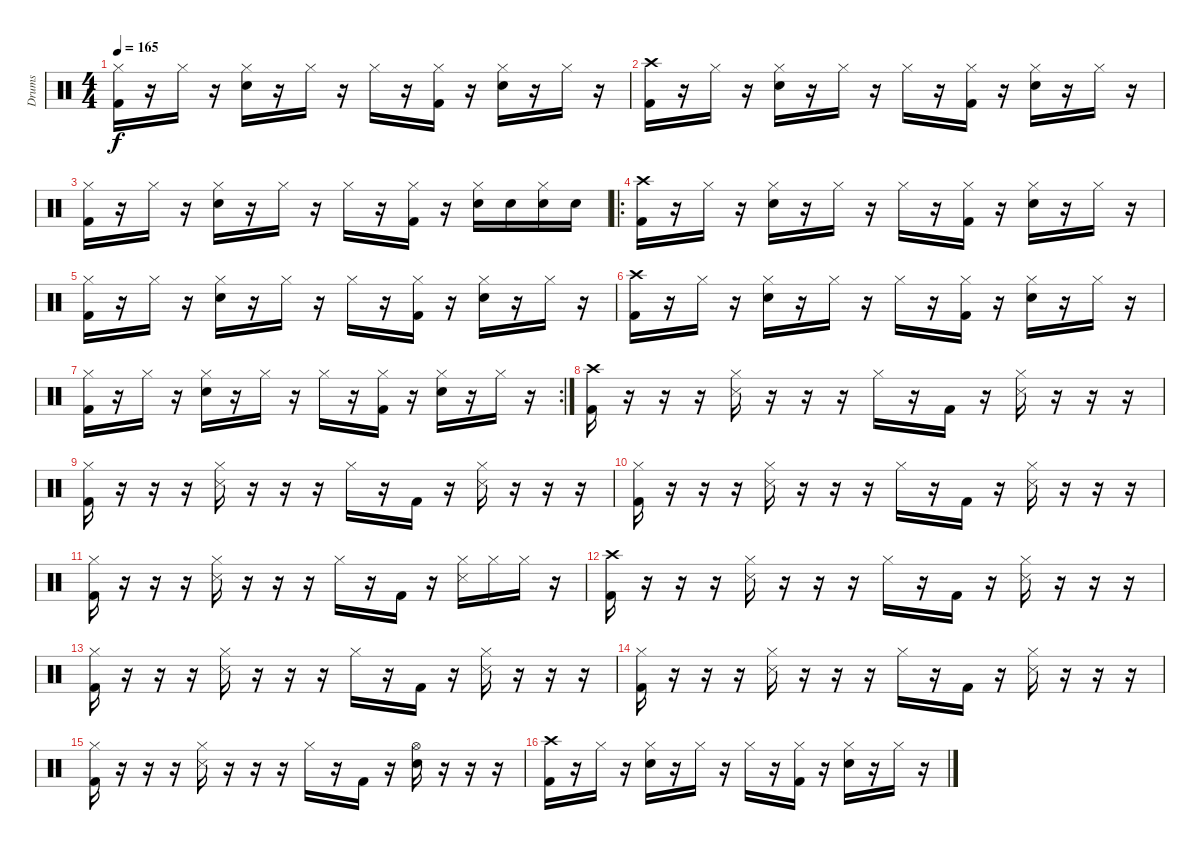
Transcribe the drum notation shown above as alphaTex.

\track ("Drums" "Drums") {instrument percussion}
\staff {score}
\articulation defaults
\ts (4 4)
\tempo 165
\clef neutral
\ks c
("Kick (hit) 2" "Hi-Hat (closed)").16{dy f} r.16 "Hi-Hat (closed)".16 r.16 ("Hi-Hat (closed)" "Snare (hit) 2").16 r.16 "Hi-Hat (closed)".16 r.16 "Hi-Hat (closed)".16 r.16 ("Hi-Hat (closed)" "Kick (hit) 2").16 r.16 ("Hi-Hat (closed)" "Snare (hit) 2").16 r.16 "Hi-Hat (closed)".16 r.16 |
("Kick (hit) 2" "Crash high (hit)").16 r.16 "Hi-Hat (closed)".16 r.16 ("Hi-Hat (closed)" "Snare (hit) 2").16 r.16 "Hi-Hat (closed)".16 r.16 "Hi-Hat (closed)".16 r.16 ("Hi-Hat (closed)" "Kick (hit) 2").16 r.16 ("Hi-Hat (closed)" "Snare (hit) 2").16 r.16 "Hi-Hat (closed)".16 r.16 |
("Kick (hit) 2" "Hi-Hat (closed)").16 r.16 "Hi-Hat (closed)".16 r.16 ("Hi-Hat (closed)" "Snare (hit) 2").16 r.16 "Hi-Hat (closed)".16 r.16 "Hi-Hat (closed)".16 r.16 ("Hi-Hat (closed)" "Kick (hit) 2").16 r.16 ("Hi-Hat (closed)" "Snare (hit) 2").16 "Snare (hit) 2".16 ("Hi-Hat (closed)" "Snare (hit) 2").16 "Snare (hit) 2".16 |
\ro
("Kick (hit) 2" "Crash high (hit)").16 r.16 "Hi-Hat (closed)".16 r.16 ("Hi-Hat (closed)" "Snare (hit) 2").16 r.16 "Hi-Hat (closed)".16 r.16 "Hi-Hat (closed)".16 r.16 ("Hi-Hat (closed)" "Kick (hit) 2").16 r.16 ("Hi-Hat (closed)" "Snare (hit) 2").16 r.16 "Hi-Hat (closed)".16 r.16 |
("Kick (hit) 2" "Hi-Hat (closed)").16 r.16 "Hi-Hat (closed)".16 r.16 ("Hi-Hat (closed)" "Snare (hit) 2").16 r.16 "Hi-Hat (closed)".16 r.16 "Hi-Hat (closed)".16 r.16 ("Hi-Hat (closed)" "Kick (hit) 2").16 r.16 ("Hi-Hat (closed)" "Snare (hit) 2").16 r.16 "Hi-Hat (closed)".16 r.16 |
("Kick (hit) 2" "Crash high (hit)").16 r.16 "Hi-Hat (closed)".16 r.16 ("Hi-Hat (closed)" "Snare (hit) 2").16 r.16 "Hi-Hat (closed)".16 r.16 "Hi-Hat (closed)".16 r.16 ("Hi-Hat (closed)" "Kick (hit) 2").16 r.16 ("Hi-Hat (closed)" "Snare (hit) 2").16 r.16 "Hi-Hat (closed)".16 r.16 |
\rc 2
("Kick (hit) 2" "Hi-Hat (closed)").16 r.16 "Hi-Hat (closed)".16 r.16 ("Hi-Hat (closed)" "Snare (hit) 2").16 r.16 "Hi-Hat (closed)".16 r.16 "Hi-Hat (closed)".16 r.16 ("Hi-Hat (closed)" "Kick (hit) 2").16 r.16 ("Hi-Hat (closed)" "Snare (hit) 2").16 r.16 "Hi-Hat (closed)".16 r.16 |
("Kick (hit) 2" "Crash high (hit)").16 r.16 r.16 r.16 ("Hi-Hat (closed)" "Snare (side stick) 3").16 r.16 r.16 r.16 "Hi-Hat (closed)".16 r.16 "Kick (hit) 2".16 r.16 ("Hi-Hat (closed)" "Snare (side stick) 3").16 r.16 r.16 r.16 |
("Kick (hit) 2" "Hi-Hat (closed)").16 r.16 r.16 r.16 ("Hi-Hat (closed)" "Snare (side stick) 3").16 r.16 r.16 r.16 "Hi-Hat (closed)".16 r.16 "Kick (hit) 2".16 r.16 ("Hi-Hat (closed)" "Snare (side stick) 3").16 r.16 r.16 r.16 |
("Kick (hit) 2" "Hi-Hat (closed)").16 r.16 r.16 r.16 ("Hi-Hat (closed)" "Snare (side stick) 3").16 r.16 r.16 r.16 "Hi-Hat (closed)".16 r.16 "Kick (hit) 2".16 r.16 ("Hi-Hat (closed)" "Snare (side stick) 3").16 r.16 r.16 r.16 |
("Kick (hit) 2" "Hi-Hat (closed)").16 r.16 r.16 r.16 ("Hi-Hat (closed)" "Snare (side stick) 3").16 r.16 r.16 r.16 "Hi-Hat (closed)".16 r.16 "Kick (hit) 2".16 r.16 ("Hi-Hat (closed)" "Snare (side stick) 3").16 "Hi-Hat (closed)".16 "Hi-Hat (closed)".16 r.16 |
("Kick (hit) 2" "Crash high (hit)").16 r.16 r.16 r.16 ("Hi-Hat (closed)" "Snare (side stick) 3").16 r.16 r.16 r.16 "Hi-Hat (closed)".16 r.16 "Kick (hit) 2".16 r.16 ("Hi-Hat (closed)" "Snare (side stick) 3").16 r.16 r.16 r.16 |
("Kick (hit) 2" "Hi-Hat (closed)").16 r.16 r.16 r.16 ("Hi-Hat (closed)" "Snare (side stick) 3").16 r.16 r.16 r.16 "Hi-Hat (closed)".16 r.16 "Kick (hit) 2".16 r.16 ("Hi-Hat (closed)" "Snare (side stick) 3").16 r.16 r.16 r.16 |
("Kick (hit) 2" "Hi-Hat (closed)").16 r.16 r.16 r.16 ("Hi-Hat (closed)" "Snare (side stick) 3").16 r.16 r.16 r.16 "Hi-Hat (closed)".16 r.16 "Kick (hit) 2".16 r.16 ("Hi-Hat (closed)" "Snare (side stick) 3").16 r.16 r.16 r.16 |
("Kick (hit) 2" "Hi-Hat (closed)").16 r.16 r.16 r.16 ("Hi-Hat (closed)" "Snare (side stick) 3").16 r.16 r.16 r.16 "Hi-Hat (closed)".16 r.16 "Kick (hit) 2".16 r.16 ("Hi-Hat (open)" "Snare (hit) 2").16 r.16 r.16 r.16 |
("Kick (hit) 2" "Crash high (hit)").16 r.16 "Hi-Hat (closed)".16 r.16 ("Hi-Hat (closed)" "Snare (hit) 2").16 r.16 "Hi-Hat (closed)".16 r.16 "Hi-Hat (closed)".16 r.16 ("Hi-Hat (closed)" "Kick (hit) 2").16 r.16 ("Hi-Hat (closed)" "Snare (hit) 2").16 r.16 "Hi-Hat (closed)".16 r.16
